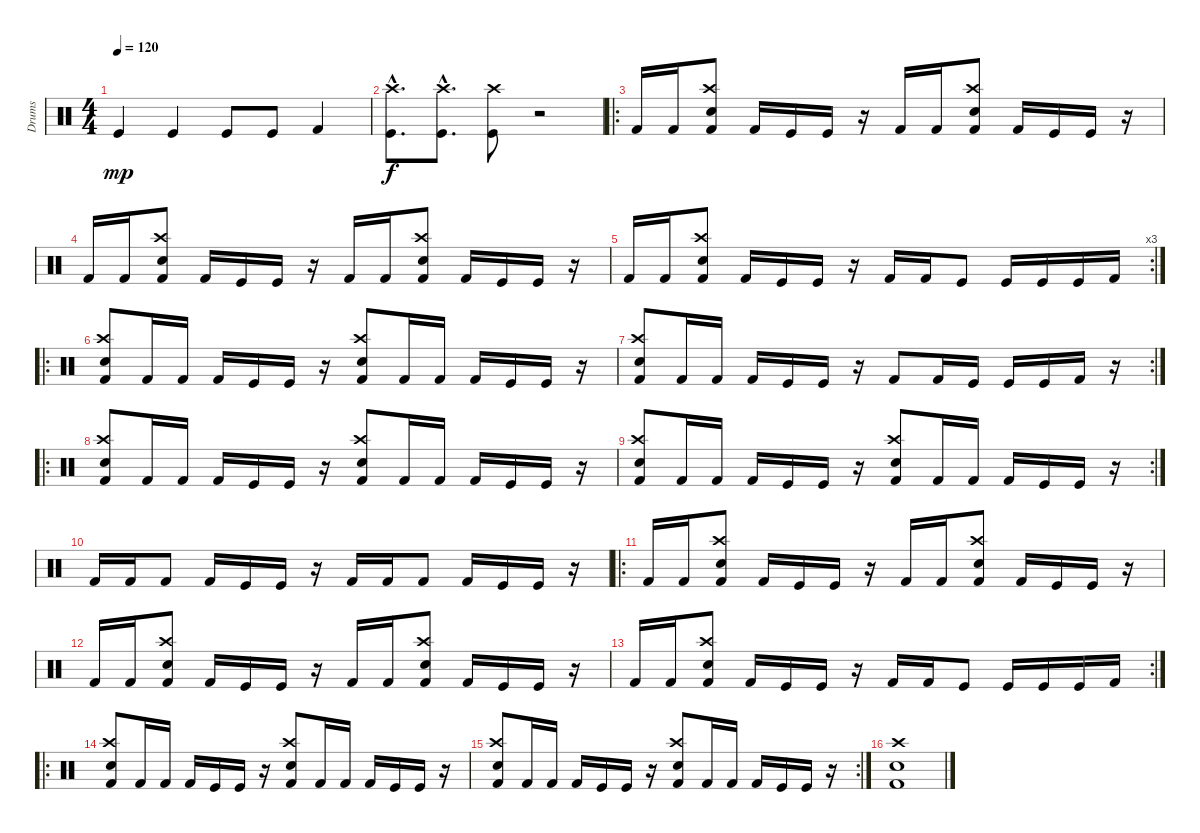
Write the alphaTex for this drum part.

\track ("Drums" "Drums") {instrument percussion}
\staff {score}
\articulation defaults
\ts (4 4)
\tempo 120
\clef neutral
\ks c "Kick (hit)".4{dy mp} "Kick (hit)".4 "Kick (hit)".8 "Kick (hit)".8 "Kick (hit) 2".4
|
("Crash high (hit)"{hac} "Kick (hit)"{hac}).8{d dy f} ("Crash high (hit)"{hac} "Kick (hit)"{hac}).8{d} ("Crash high (hit)" "Kick (hit)").8 r.2 |
\ro "Kick (hit) 2".16 "Kick (hit) 2".16
("Crash high (hit)" "Snare (hit) 2" "Kick (hit) 2").8 "Kick (hit) 2".16 "Kick (hit)".16 "Kick (hit)".16 r.16 "Kick (hit) 2".16 "Kick (hit) 2".16 ("Crash high (hit)" "Snare (hit) 2" "Kick (hit) 2").8 "Kick (hit) 2".16 "Kick (hit)".16 "Kick (hit)".16 r.16 |
"Kick (hit) 2".16 "Kick (hit) 2".16 ("Crash high (hit)" "Snare (hit) 2" "Kick (hit) 2").8 "Kick (hit) 2".16 "Kick (hit)".16 "Kick (hit)".16 r.16 "Kick (hit) 2".16 "Kick (hit) 2".16 ("Crash high (hit)" "Snare (hit) 2" "Kick (hit) 2").8 "Kick (hit) 2".16 "Kick (hit)".16 "Kick (hit)".16 r.16 |
\rc 3 "Kick (hit) 2".16 "Kick (hit) 2".16
("Crash high (hit)" "Snare (hit) 2" "Kick (hit) 2").8 "Kick (hit) 2".16 "Kick (hit)".16 "Kick (hit)".16 r.16 "Kick (hit) 2".16 "Kick (hit) 2".16 "Kick (hit)".8 "Kick (hit)".16 "Kick (hit)".16 "Kick (hit)".16 "Kick (hit) 2".16 |
\ro
("Crash high (hit)" "Snare (hit) 2" "Kick (hit) 2").8 "Kick (hit) 2".16 "Kick (hit) 2".16 "Kick (hit) 2".16 "Kick (hit)".16 "Kick (hit)".16 r.16 ("Crash high (hit)" "Snare (hit) 2" "Kick (hit) 2").8 "Kick (hit) 2".16 "Kick (hit) 2".16 "Kick (hit) 2".16 "Kick (hit)".16 "Kick (hit)".16 r.16 |
\rc 2
("Crash high (hit)" "Snare (hit) 2" "Kick (hit) 2").8 "Kick (hit) 2".16 "Kick (hit) 2".16 "Kick (hit) 2".16 "Kick (hit)".16 "Kick (hit)".16 r.16 "Kick (hit) 2".8 "Kick (hit) 2".16 "Kick (hit)".16 "Kick (hit)".16 "Kick (hit)".16 "Kick (hit) 2".16 r.16 |
\ro
("Crash high (hit)" "Snare (hit) 2" "Kick (hit) 2").8 "Kick (hit) 2".16 "Kick (hit) 2".16 "Kick (hit) 2".16 "Kick (hit)".16 "Kick (hit)".16 r.16 ("Crash high (hit)" "Snare (hit) 2" "Kick (hit) 2").8 "Kick (hit) 2".16 "Kick (hit) 2".16 "Kick (hit) 2".16 "Kick (hit)".16 "Kick (hit)".16 r.16 |
\rc 2
("Crash high (hit)" "Snare (hit) 2" "Kick (hit) 2").8 "Kick (hit) 2".16 "Kick (hit) 2".16 "Kick (hit) 2".16 "Kick (hit)".16 "Kick (hit)".16 r.16 ("Crash high (hit)" "Snare (hit) 2" "Kick (hit) 2").8 "Kick (hit) 2".16 "Kick (hit) 2".16 "Kick (hit) 2".16 "Kick (hit)".16 "Kick (hit)".16 r.16 |
"Kick (hit) 2".16 "Kick (hit) 2".16 "Kick (hit) 2".8 "Kick (hit) 2".16 "Kick (hit)".16 "Kick (hit)".16 r.16 "Kick (hit) 2".16 "Kick (hit) 2".16 "Kick (hit) 2".8 "Kick (hit) 2".16 "Kick (hit)".16 "Kick (hit)".16 r.16 |
\ro "Kick (hit) 2".16 "Kick (hit) 2".16
("Crash high (hit)" "Snare (hit) 2" "Kick (hit) 2").8 "Kick (hit) 2".16 "Kick (hit)".16 "Kick (hit)".16 r.16 "Kick (hit) 2".16 "Kick (hit) 2".16 ("Crash high (hit)" "Snare (hit) 2" "Kick (hit) 2").8 "Kick (hit) 2".16 "Kick (hit)".16 "Kick (hit)".16 r.16 |
"Kick (hit) 2".16 "Kick (hit) 2".16 ("Crash high (hit)" "Snare (hit) 2" "Kick (hit) 2").8 "Kick (hit) 2".16 "Kick (hit)".16 "Kick (hit)".16 r.16 "Kick (hit) 2".16 "Kick (hit) 2".16 ("Crash high (hit)" "Snare (hit) 2" "Kick (hit) 2").8 "Kick (hit) 2".16 "Kick (hit)".16 "Kick (hit)".16 r.16 |
\rc 2 "Kick (hit) 2".16 "Kick (hit) 2".16
("Crash high (hit)" "Snare (hit) 2" "Kick (hit) 2").8 "Kick (hit) 2".16 "Kick (hit)".16 "Kick (hit)".16 r.16 "Kick (hit) 2".16 "Kick (hit) 2".16 "Kick (hit)".8 "Kick (hit)".16 "Kick (hit)".16 "Kick (hit)".16 "Kick (hit) 2".16 |
\ro
("Crash high (hit)" "Snare (hit) 2" "Kick (hit) 2").8 "Kick (hit) 2".16 "Kick (hit) 2".16 "Kick (hit) 2".16 "Kick (hit)".16 "Kick (hit)".16 r.16 ("Crash high (hit)" "Snare (hit) 2" "Kick (hit) 2").8 "Kick (hit) 2".16 "Kick (hit) 2".16 "Kick (hit) 2".16 "Kick (hit)".16 "Kick (hit)".16 r.16 |
\rc 2
("Crash high (hit)" "Snare (hit) 2" "Kick (hit) 2").8 "Kick (hit) 2".16 "Kick (hit) 2".16 "Kick (hit) 2".16 "Kick (hit)".16 "Kick (hit)".16 r.16 ("Crash high (hit)" "Snare (hit) 2" "Kick (hit) 2").8 "Kick (hit) 2".16 "Kick (hit) 2".16 "Kick (hit) 2".16 "Kick (hit)".16 "Kick (hit)".16 r.16 |
("Crash high (hit)" "Snare (hit) 2" "Kick (hit) 2").1
